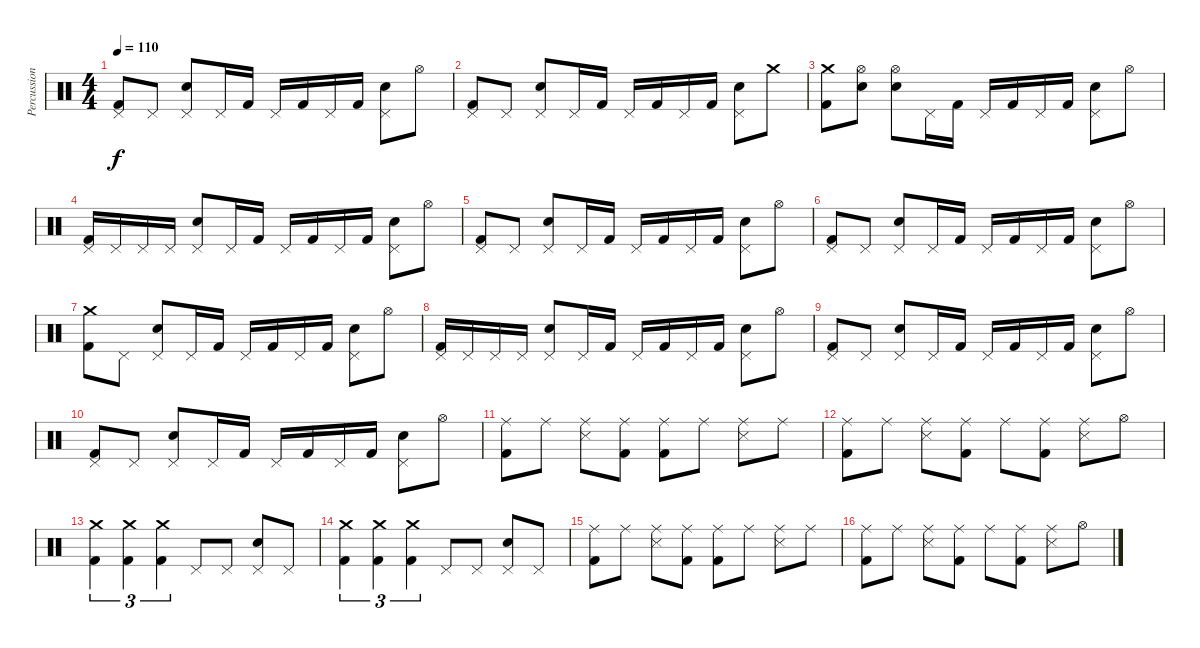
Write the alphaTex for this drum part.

\track ("Percussion" "Percussion") {instrument percussion}
\staff {score}
\articulation defaults
\ts (4 4)
\tempo 110
\clef neutral
\ks c
("Pedal Hi-Hat (hit)" "Kick (hit) 2").8{dy f} "Pedal Hi-Hat (hit)".8 ("Pedal Hi-Hat (hit)" "Electric Snare (hit)").8 "Pedal Hi-Hat (hit)".16 "Kick (hit) 2".16 "Pedal Hi-Hat (hit)".16 "Kick (hit) 2".16 "Pedal Hi-Hat (hit)".16 "Kick (hit) 2".16 ("Pedal Hi-Hat (hit)" "Electric Snare (hit)").8 "Hi-Hat (open)".8 |
("Pedal Hi-Hat (hit)" "Kick (hit) 2").8 "Pedal Hi-Hat (hit)".8 ("Pedal Hi-Hat (hit)" "Electric Snare (hit)").8 "Pedal Hi-Hat (hit)".16 "Kick (hit) 2".16 "Pedal Hi-Hat (hit)".16 "Kick (hit) 2".16 "Pedal Hi-Hat (hit)".16 "Kick (hit) 2".16 ("Pedal Hi-Hat (hit)" "Electric Snare (hit)").8 "Crash medium (hit)".8 |
("Crash medium (hit)" "Kick (hit) 2").8 ("Hi-Hat (open)" "Electric Snare (hit)").8 ("Hi-Hat (open)" "Electric Snare (hit)").8 "Pedal Hi-Hat (hit)".16 "Kick (hit) 2".16 "Pedal Hi-Hat (hit)".16 "Kick (hit) 2".16 "Pedal Hi-Hat (hit)".16 "Kick (hit) 2".16 ("Pedal Hi-Hat (hit)" "Electric Snare (hit)").8 "Hi-Hat (open)".8 |
("Pedal Hi-Hat (hit)" "Kick (hit) 2").16 "Pedal Hi-Hat (hit)".16 "Pedal Hi-Hat (hit)".16 "Pedal Hi-Hat (hit)".16 ("Pedal Hi-Hat (hit)" "Electric Snare (hit)").8 "Pedal Hi-Hat (hit)".16 "Kick (hit) 2".16 "Pedal Hi-Hat (hit)".16 "Kick (hit) 2".16 "Pedal Hi-Hat (hit)".16 "Kick (hit) 2".16 ("Pedal Hi-Hat (hit)" "Electric Snare (hit)").8 "Hi-Hat (open)".8 |
("Pedal Hi-Hat (hit)" "Kick (hit) 2").8 "Pedal Hi-Hat (hit)".8 ("Pedal Hi-Hat (hit)" "Electric Snare (hit)").8 "Pedal Hi-Hat (hit)".16 "Kick (hit) 2".16 "Pedal Hi-Hat (hit)".16 "Kick (hit) 2".16 "Pedal Hi-Hat (hit)".16 "Kick (hit) 2".16 ("Pedal Hi-Hat (hit)" "Electric Snare (hit)").8 "Hi-Hat (open)".8 |
("Pedal Hi-Hat (hit)" "Kick (hit) 2").8 "Pedal Hi-Hat (hit)".8 ("Pedal Hi-Hat (hit)" "Electric Snare (hit)").8 "Pedal Hi-Hat (hit)".16 "Kick (hit) 2".16 "Pedal Hi-Hat (hit)".16 "Kick (hit) 2".16 "Pedal Hi-Hat (hit)".16 "Kick (hit) 2".16 ("Pedal Hi-Hat (hit)" "Electric Snare (hit)").8 "Hi-Hat (open)".8 |
("Crash medium (hit)" "Kick (hit) 2").8 "Pedal Hi-Hat (hit)".8 ("Pedal Hi-Hat (hit)" "Electric Snare (hit)").8 "Pedal Hi-Hat (hit)".16 "Kick (hit) 2".16 "Pedal Hi-Hat (hit)".16 "Kick (hit) 2".16 "Pedal Hi-Hat (hit)".16 "Kick (hit) 2".16 ("Pedal Hi-Hat (hit)" "Electric Snare (hit)").8 "Hi-Hat (open)".8 |
("Pedal Hi-Hat (hit)" "Kick (hit) 2").16 "Pedal Hi-Hat (hit)".16 "Pedal Hi-Hat (hit)".16 "Pedal Hi-Hat (hit)".16 ("Pedal Hi-Hat (hit)" "Electric Snare (hit)").8 "Pedal Hi-Hat (hit)".16 "Kick (hit) 2".16 "Pedal Hi-Hat (hit)".16 "Kick (hit) 2".16 "Pedal Hi-Hat (hit)".16 "Kick (hit) 2".16 ("Pedal Hi-Hat (hit)" "Electric Snare (hit)").8 "Hi-Hat (open)".8 |
("Pedal Hi-Hat (hit)" "Kick (hit) 2").8 "Pedal Hi-Hat (hit)".8 ("Pedal Hi-Hat (hit)" "Electric Snare (hit)").8 "Pedal Hi-Hat (hit)".16 "Kick (hit) 2".16 "Pedal Hi-Hat (hit)".16 "Kick (hit) 2".16 "Pedal Hi-Hat (hit)".16 "Kick (hit) 2".16 ("Pedal Hi-Hat (hit)" "Electric Snare (hit)").8 "Hi-Hat (open)".8 |
("Pedal Hi-Hat (hit)" "Kick (hit) 2").8 "Pedal Hi-Hat (hit)".8 ("Pedal Hi-Hat (hit)" "Electric Snare (hit)").8 "Pedal Hi-Hat (hit)".16 "Kick (hit) 2".16 "Pedal Hi-Hat (hit)".16 "Kick (hit) 2".16 "Pedal Hi-Hat (hit)".16 "Kick (hit) 2".16 ("Pedal Hi-Hat (hit)" "Electric Snare (hit)").8 "Hi-Hat (open)".8 |
("Ride (middle)" "Kick (hit) 2").8 "Ride (middle)".8 ("Ride (middle)" "Snare (side stick) 3").8 ("Ride (middle)" "Kick (hit) 2").8 ("Ride (middle)" "Kick (hit) 2").8 "Ride (middle)".8 ("Ride (middle)" "Snare (side stick) 3").8 "Ride (middle)".8 |
("Ride (middle)" "Kick (hit) 2").8 "Ride (middle)".8 ("Ride (middle)" "Snare (side stick) 3").8 ("Ride (middle)" "Kick (hit) 2").8 "Ride (middle)".8 ("Ride (middle)" "Kick (hit) 2").8 ("Ride (middle)" "Snare (side stick) 3").8 "Hi-Hat (open)".8 |
("Crash medium (hit)" "Kick (hit) 2").4{tu (3 2)} ("Crash medium (hit)" "Kick (hit) 2").4{tu (3 2)} ("Crash medium (hit)" "Kick (hit) 2").4{tu (3 2)} "Pedal Hi-Hat (hit)".8 "Pedal Hi-Hat (hit)".8 ("Pedal Hi-Hat (hit)" "Snare (hit) 2").8 "Pedal Hi-Hat (hit)".8 |
("Crash medium (hit)" "Kick (hit) 2").4{tu (3 2)} ("Crash medium (hit)" "Kick (hit) 2").4{tu (3 2)} ("Crash medium (hit)" "Kick (hit) 2").4{tu (3 2)} "Pedal Hi-Hat (hit)".8 "Pedal Hi-Hat (hit)".8 ("Pedal Hi-Hat (hit)" "Snare (hit) 2").8 "Pedal Hi-Hat (hit)".8 |
("Ride (middle)" "Kick (hit) 2").8 "Ride (middle)".8 ("Ride (middle)" "Snare (side stick) 3").8 ("Ride (middle)" "Kick (hit) 2").8 ("Ride (middle)" "Kick (hit) 2").8 "Ride (middle)".8 ("Ride (middle)" "Snare (side stick) 3").8 "Ride (middle)".8 |
("Ride (middle)" "Kick (hit) 2").8 "Ride (middle)".8 ("Ride (middle)" "Snare (side stick) 3").8 ("Ride (middle)" "Kick (hit) 2").8 "Ride (middle)".8 ("Ride (middle)" "Kick (hit) 2").8 ("Ride (middle)" "Snare (side stick) 3").8 "Hi-Hat (open)".8
